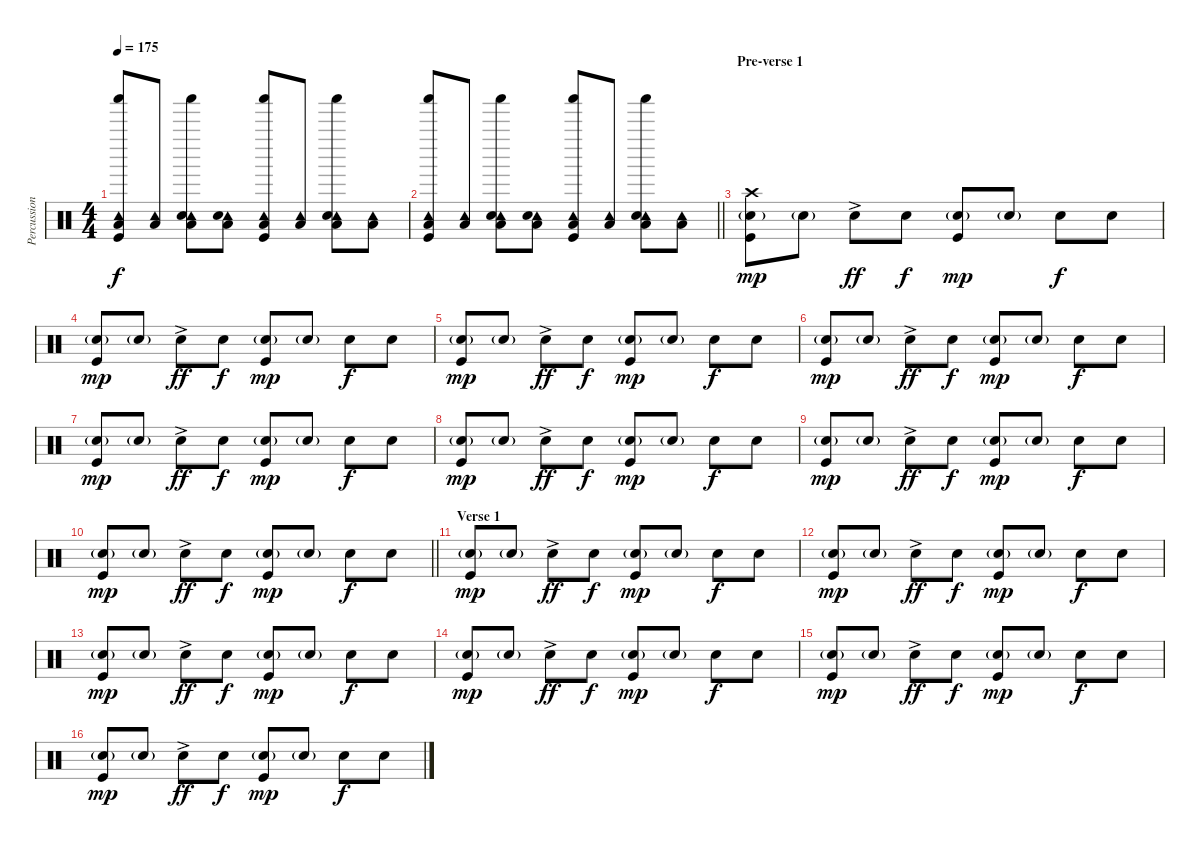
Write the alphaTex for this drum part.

\track ("Percussion" "Percussion") {instrument percussion}
\staff {score}
\articulation defaults
\ts (4 4)
\tempo 175
\clef neutral
\ks c
("Tambourine (hit)" "Shaker (hit)" "Low Floor Tom (hit)" "Kick (hit)").8{dy f} ("Tambourine (hit)" "Low Floor Tom (hit)").8 ("Tambourine (hit)" "Shaker (hit)" "Snare (hit) 2" "Low Floor Tom (hit)").8 ("Tambourine (hit)" "Snare (hit) 2" "Low Floor Tom (hit)").8 ("Tambourine (hit)" "Shaker (hit)" "Low Floor Tom (hit)" "Kick (hit)").8 ("Tambourine (hit)" "Low Floor Tom (hit)").8 ("Tambourine (hit)" "Shaker (hit)" "Snare (hit) 2" "Low Floor Tom (hit)").8 ("Tambourine (hit)" "Low Floor Tom (hit)").8 |
\barLineRight lightlight
("Tambourine (hit)" "Shaker (hit)" "Low Floor Tom (hit)" "Kick (hit)").8 ("Tambourine (hit)" "Low Floor Tom (hit)").8 ("Tambourine (hit)" "Shaker (hit)" "Snare (hit) 2" "Low Floor Tom (hit)").8 ("Tambourine (hit)" "Snare (hit) 2" "Low Floor Tom (hit)").8 ("Tambourine (hit)" "Shaker (hit)" "Low Floor Tom (hit)" "Kick (hit)").8 ("Tambourine (hit)" "Low Floor Tom (hit)").8 ("Tambourine (hit)" "Shaker (hit)" "Snare (hit) 2" "Low Floor Tom (hit)").8 ("Tambourine (hit)" "Low Floor Tom (hit)").8 |
\section ("" "Pre-verse 1")
("Crash high (hit)" "Snare (hit) 2"{g} "Kick (hit)").8{dy mp} "Snare (hit) 2"{g}.8 "Snare (hit) 2"{ac}.8{dy ff} "Snare (hit) 2".8{dy f} ("Snare (hit) 2"{g} "Kick (hit)").8{dy mp} "Snare (hit) 2"{g}.8 "Snare (hit) 2".8{dy f} "Snare (hit) 2".8 |
("Snare (hit) 2"{g} "Kick (hit)").8{dy mp} "Snare (hit) 2"{g}.8 "Snare (hit) 2"{ac}.8{dy ff} "Snare (hit) 2".8{dy f} ("Snare (hit) 2"{g} "Kick (hit)").8{dy mp} "Snare (hit) 2"{g}.8 "Snare (hit) 2".8{dy f} "Snare (hit) 2".8 |
("Snare (hit) 2"{g} "Kick (hit)").8{dy mp} "Snare (hit) 2"{g}.8 "Snare (hit) 2"{ac}.8{dy ff} "Snare (hit) 2".8{dy f} ("Snare (hit) 2"{g} "Kick (hit)").8{dy mp} "Snare (hit) 2"{g}.8 "Snare (hit) 2".8{dy f} "Snare (hit) 2".8 |
("Snare (hit) 2"{g} "Kick (hit)").8{dy mp} "Snare (hit) 2"{g}.8 "Snare (hit) 2"{ac}.8{dy ff} "Snare (hit) 2".8{dy f} ("Snare (hit) 2"{g} "Kick (hit)").8{dy mp} "Snare (hit) 2"{g}.8 "Snare (hit) 2".8{dy f} "Snare (hit) 2".8 |
("Snare (hit) 2"{g} "Kick (hit)").8{dy mp} "Snare (hit) 2"{g}.8 "Snare (hit) 2"{ac}.8{dy ff} "Snare (hit) 2".8{dy f} ("Snare (hit) 2"{g} "Kick (hit)").8{dy mp} "Snare (hit) 2"{g}.8 "Snare (hit) 2".8{dy f} "Snare (hit) 2".8 |
("Snare (hit) 2"{g} "Kick (hit)").8{dy mp} "Snare (hit) 2"{g}.8 "Snare (hit) 2"{ac}.8{dy ff} "Snare (hit) 2".8{dy f} ("Snare (hit) 2"{g} "Kick (hit)").8{dy mp} "Snare (hit) 2"{g}.8 "Snare (hit) 2".8{dy f} "Snare (hit) 2".8 |
("Snare (hit) 2"{g} "Kick (hit)").8{dy mp} "Snare (hit) 2"{g}.8 "Snare (hit) 2"{ac}.8{dy ff} "Snare (hit) 2".8{dy f} ("Snare (hit) 2"{g} "Kick (hit)").8{dy mp} "Snare (hit) 2"{g}.8 "Snare (hit) 2".8{dy f} "Snare (hit) 2".8 |
\barLineRight lightlight
("Snare (hit) 2"{g} "Kick (hit)").8{dy mp} "Snare (hit) 2"{g}.8 "Snare (hit) 2"{ac}.8{dy ff} "Snare (hit) 2".8{dy f} ("Snare (hit) 2"{g} "Kick (hit)").8{dy mp} "Snare (hit) 2"{g}.8 "Snare (hit) 2".8{dy f} "Snare (hit) 2".8 |
\section ("" "Verse 1")
("Snare (hit) 2"{g} "Kick (hit)").8{dy mp} "Snare (hit) 2"{g}.8 "Snare (hit) 2"{ac}.8{dy ff} "Snare (hit) 2".8{dy f} ("Snare (hit) 2"{g} "Kick (hit)").8{dy mp} "Snare (hit) 2"{g}.8 "Snare (hit) 2".8{dy f} "Snare (hit) 2".8 |
("Snare (hit) 2"{g} "Kick (hit)").8{dy mp} "Snare (hit) 2"{g}.8 "Snare (hit) 2"{ac}.8{dy ff} "Snare (hit) 2".8{dy f} ("Snare (hit) 2"{g} "Kick (hit)").8{dy mp} "Snare (hit) 2"{g}.8 "Snare (hit) 2".8{dy f} "Snare (hit) 2".8 |
("Snare (hit) 2"{g} "Kick (hit)").8{dy mp} "Snare (hit) 2"{g}.8 "Snare (hit) 2"{ac}.8{dy ff} "Snare (hit) 2".8{dy f} ("Snare (hit) 2"{g} "Kick (hit)").8{dy mp} "Snare (hit) 2"{g}.8 "Snare (hit) 2".8{dy f} "Snare (hit) 2".8 |
("Snare (hit) 2"{g} "Kick (hit)").8{dy mp} "Snare (hit) 2"{g}.8 "Snare (hit) 2"{ac}.8{dy ff} "Snare (hit) 2".8{dy f} ("Snare (hit) 2"{g} "Kick (hit)").8{dy mp} "Snare (hit) 2"{g}.8 "Snare (hit) 2".8{dy f} "Snare (hit) 2".8 |
("Snare (hit) 2"{g} "Kick (hit)").8{dy mp} "Snare (hit) 2"{g}.8 "Snare (hit) 2"{ac}.8{dy ff} "Snare (hit) 2".8{dy f} ("Snare (hit) 2"{g} "Kick (hit)").8{dy mp} "Snare (hit) 2"{g}.8 "Snare (hit) 2".8{dy f} "Snare (hit) 2".8 |
("Snare (hit) 2"{g} "Kick (hit)").8{dy mp} "Snare (hit) 2"{g}.8 "Snare (hit) 2"{ac}.8{dy ff} "Snare (hit) 2".8{dy f} ("Snare (hit) 2"{g} "Kick (hit)").8{dy mp} "Snare (hit) 2"{g}.8 "Snare (hit) 2".8{dy f} "Snare (hit) 2".8
